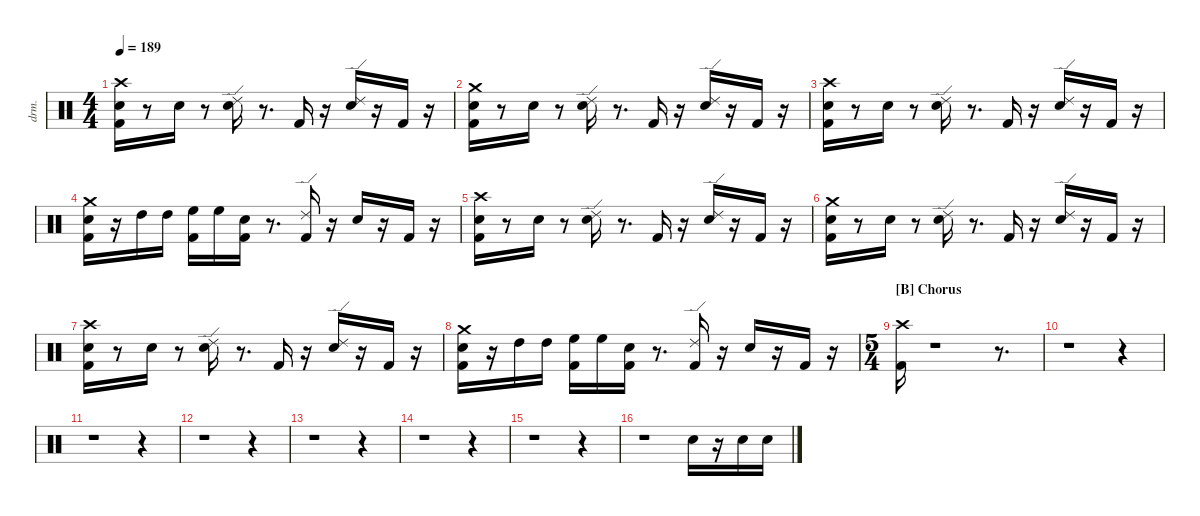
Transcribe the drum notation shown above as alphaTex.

\defaultSystemsLayout 4
\hideDynamics
\bracketExtendMode nobrackets
\track ("EZdrummer 3" "drm.") {instrument percussion}
\staff {score}
\articulation defaults
\ts (4 4)
\tempo 189
\clef neutral
\ks aminor
("Crash high (hit)"{acc #} "Kick (hit) 2" "Snare (hit) 2").16{dy ff} r.8 "Snare (hit) 2".16 r.8 ("Snare (hit) 2" "Ride (edge) 2").16 r.8{d} "Kick (hit) 2".16 r.16 ("Snare (hit) 2" "Ride (edge) 2").16 r.16 "Kick (hit) 2".16{dy f} r.16 |
("Kick (hit) 2" "Snare (hit) 2" "Crash medium (hit)").16{dy fff} r.8 "Snare (hit) 2".16{dy ff} r.8 ("Snare (hit) 2" "Ride (edge) 2").16 r.8{d} "Kick (hit) 2".16 r.16 ("Snare (hit) 2" "Ride (edge) 2").16 r.16 "Kick (hit) 2".16{dy f} r.16 |
("Kick (hit) 2" "Snare (hit) 2" "Crash high (hit)"{acc #}).16{dy fff} r.8 "Snare (hit) 2".16{dy ff} r.8 ("Snare (hit) 2" "Ride (edge) 2").16 r.8{d} "Kick (hit) 2".16 r.16 ("Snare (hit) 2" "Ride (edge) 2").16 r.16 "Kick (hit) 2".16{dy f} r.16 |
("Snare (hit) 2" "Crash medium (hit)" "Kick (hit) 2").16{dy ff} r.16 "High Tom (hit)".16 "High Tom (hit)".16{dy mf} ("Kick (hit) 2" "High Floor Tom (hit)").16 "High Floor Tom (hit)".16 ("Kick (hit) 2" "Snare (hit) 2").16{dy fff} r.8{d} ("Kick (hit) 2" "Ride (edge) 2").16{dy ff} r.16 "Snare (hit) 2".16 r.16 "Kick (hit) 2".16{dy f} r.16 |
("Crash high (hit)"{acc #} "Kick (hit) 2" "Snare (hit) 2").16{dy ff} r.8 "Snare (hit) 2".16 r.8 ("Snare (hit) 2" "Ride (edge) 2").16 r.8{d} "Kick (hit) 2".16 r.16 ("Snare (hit) 2" "Ride (edge) 2").16 r.16 "Kick (hit) 2".16{dy f} r.16 |
("Crash medium (hit)" "Kick (hit) 2" "Snare (hit) 2").16{dy ff} r.8 "Snare (hit) 2".16 r.8 ("Snare (hit) 2" "Ride (edge) 2").16 r.8{d} "Kick (hit) 2".16 r.16 ("Snare (hit) 2" "Ride (edge) 2").16 r.16 "Kick (hit) 2".16{dy f} r.16 |
("Snare (hit) 2" "Crash high (hit)"{acc #} "Kick (hit) 2").16{dy ff} r.8 "Snare (hit) 2".16 r.8 ("Snare (hit) 2" "Ride (edge) 2").16 r.8{d} "Kick (hit) 2".16 r.16 ("Snare (hit) 2" "Ride (edge) 2").16 r.16 "Kick (hit) 2".16{dy f} r.16 |
("Kick (hit) 2" "Snare (hit) 2" "Crash medium (hit)").16{dy ff} r.16 "High Tom (hit)".16 "High Tom (hit)".16{dy mf} ("Kick (hit) 2" "High Floor Tom (hit)").16 "High Floor Tom (hit)".16 ("Kick (hit) 2" "Snare (hit) 2").16{dy fff} r.8{d} ("Kick (hit) 2" "Ride (edge) 2").16{dy ff} r.16 "Snare (hit) 2".16 r.16 "Kick (hit) 2".16{dy f} r.16 |
\ts (5 4)
\section ("B" "Chorus")
("Kick (hit) 2" "Crash high (hit)"{acc #}).16{dy fff} r.1 r.8{d} |
r.1 r.4 |
r.1 r.4 |
r.1 r.4 |
r.1 r.4 |
r.1 r.4 |
r.1 r.4 |
r.1 "Snare (hit) 2".16{dy p} r.16 "Snare (hit) 2".16{dy ppp} "Snare (hit) 2".16
